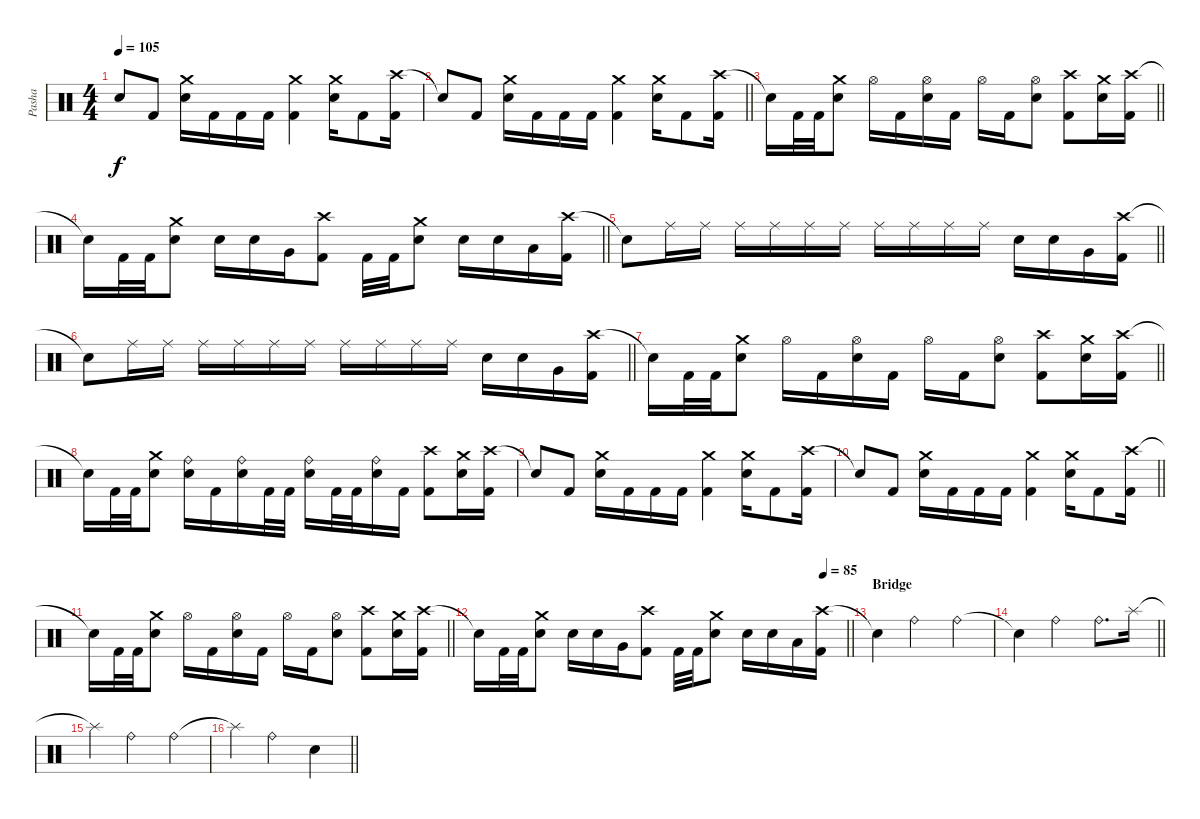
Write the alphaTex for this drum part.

\track ("Pasha" "Pasha") {instrument percussion}
\staff {score}
\articulation defaults
\ts (4 4)
\tempo 105
\clef neutral
\ks c "Snare (hit)"{t}.8{dy f} "Kick (hit) 2".8
("Crash medium (hit)" "Electric Snare (hit)").16 "Kick (hit) 2".16 "Kick (hit) 2".16 "Kick (hit) 2".16 ("Crash medium (hit)" "Kick (hit) 2").4 ("Crash medium (hit)" "Electric Snare (hit)").16 "Kick (hit) 2".8 ("Crash high (hit)" "Kick (hit) 2").16 |
\barLineRight lightlight "Snare (hit)"{t}.8 "Kick (hit) 2".8
("Crash medium (hit)" "Electric Snare (hit)").16 "Kick (hit) 2".16 "Kick (hit) 2".16 "Kick (hit) 2".16 ("Crash medium (hit)" "Kick (hit) 2").4 ("Crash medium (hit)" "Electric Snare (hit)").16 "Kick (hit) 2".8 ("Crash high (hit)" "Kick (hit) 2").16 |
\section ("" "")
\barLineRight lightlight "Snare (hit)"{t}.16 "Kick (hit) 2".32 "Kick (hit) 2".32
("Crash medium (hit)" "Electric Snare (hit)").8 "Hi-Hat (open)".16 "Kick (hit) 2".16 ("Hi-Hat (open)" "Electric Snare (hit)").16 "Kick (hit) 2".16 "Hi-Hat (open)".16 "Kick (hit) 2".16 ("Hi-Hat (open)" "Electric Snare (hit)").8 ("Crash high (hit)" "Kick (hit) 2").8 ("Crash medium (hit)" "Electric Snare (hit)").16 ("Crash high (hit)" "Kick (hit) 2").16 |
\barLineRight lightlight "Snare (hit)"{t}.16 "Kick (hit) 2".32 "Kick (hit) 2".32
("Crash medium (hit)" "Electric Snare (hit)").8 "Electric Snare (hit)".16 "Electric Snare (hit)".16 "Very Low Tom (hit)".16 ("Crash high (hit)" "Kick (hit) 2").8 "Kick (hit) 2".32 "Kick (hit) 2".32 ("Crash medium (hit)" "Electric Snare (hit)").8 "Electric Snare (hit)".16 "Electric Snare (hit)".16 "Low Floor Tom (hit)".16 ("Crash high (hit)" "Kick (hit) 2").16 |
\section ("" "")
\barLineRight lightlight "Snare (hit)"{t}.8 "Ride (middle)".16 "Ride (middle)".16 "Ride (middle)".16 "Ride (middle)".16 "Ride (middle)".16 "Ride (middle)".16 "Ride (middle)".16 "Ride (middle)".16 "Ride (middle)".16 "Ride (middle)".16 "Electric Snare (hit)".16 "Electric Snare (hit)".16 "Very Low Tom (hit)".16
("Crash high (hit)" "Kick (hit) 2").16 |
\barLineRight lightlight "Snare (hit)"{t}.8 "Ride (middle)".16 "Ride (middle)".16 "Ride (middle)".16 "Ride (middle)".16 "Ride (middle)".16 "Ride (middle)".16 "Ride (middle)".16 "Ride (middle)".16 "Ride (middle)".16 "Ride (middle)".16 "Electric Snare (hit)".16 "Electric Snare (hit)".16 "Very Low Tom (hit)".16
("Crash high (hit)" "Kick (hit) 2").16 |
\section ("" "")
\barLineRight lightlight "Snare (hit)"{t}.16 "Kick (hit) 2".32 "Kick (hit) 2".32
("Crash medium (hit)" "Electric Snare (hit)").8 "Hi-Hat (open)".16 "Kick (hit) 2".16 ("Hi-Hat (open)" "Electric Snare (hit)").16 "Kick (hit) 2".16 "Hi-Hat (open)".16 "Kick (hit) 2".16 ("Hi-Hat (open)" "Electric Snare (hit)").8 ("Crash high (hit)" "Kick (hit) 2").8 ("Crash medium (hit)" "Electric Snare (hit)").16 ("Crash high (hit)" "Kick (hit) 2").16 |
"Snare (hit)"{t}.16 "Kick (hit) 2".32 "Kick (hit) 2".32 ("Crash medium (hit)" "Electric Snare (hit)").8 ("Ride (bell)" "Electric Snare (hit)").16 "Kick (hit) 2".16 ("Ride (bell)" "Electric Snare (hit)").16 "Kick (hit) 2".32 "Kick (hit) 2".32 ("Ride (bell)" "Electric Snare (hit)").16 "Kick (hit) 2".32 "Kick (hit) 2".32 ("Ride (bell)" "Electric Snare (hit)").16 "Kick (hit) 2".16 ("Crash high (hit)" "Kick (hit) 2").8 ("Crash medium (hit)" "Electric Snare (hit)").16 ("Crash high (hit)" "Kick (hit) 2").16 |
"Snare (hit)"{t}.8 "Kick (hit) 2".8 ("Crash medium (hit)" "Electric Snare (hit)").16 "Kick (hit) 2".16 "Kick (hit) 2".16 "Kick (hit) 2".16 ("Crash medium (hit)" "Kick (hit) 2").4 ("Crash medium (hit)" "Electric Snare (hit)").16 "Kick (hit) 2".8 ("Crash high (hit)" "Kick (hit) 2").16 |
\barLineRight lightlight "Snare (hit)"{t}.8 "Kick (hit) 2".8
("Crash medium (hit)" "Electric Snare (hit)").16 "Kick (hit) 2".16 "Kick (hit) 2".16 "Kick (hit) 2".16 ("Crash medium (hit)" "Kick (hit) 2").4 ("Crash medium (hit)" "Electric Snare (hit)").16 "Kick (hit) 2".8 ("Crash high (hit)" "Kick (hit) 2").16 |
\section ("" "")
\barLineRight lightlight "Snare (hit)"{t}.16 "Kick (hit) 2".32 "Kick (hit) 2".32
("Crash medium (hit)" "Electric Snare (hit)").8 "Hi-Hat (open)".16 "Kick (hit) 2".16 ("Hi-Hat (open)" "Electric Snare (hit)").16 "Kick (hit) 2".16 "Hi-Hat (open)".16 "Kick (hit) 2".16 ("Hi-Hat (open)" "Electric Snare (hit)").8 ("Crash high (hit)" "Kick (hit) 2").8 ("Crash medium (hit)" "Electric Snare (hit)").16 ("Crash high (hit)" "Kick (hit) 2").16 |
\tempo (85 0.9375)
\barLineRight lightlight "Snare (hit)"{t}.16 "Kick (hit) 2".32 "Kick (hit) 2".32
("Crash medium (hit)" "Electric Snare (hit)").8 "Electric Snare (hit)".16 "Electric Snare (hit)".16 "Very Low Tom (hit)".16 ("Crash high (hit)" "Kick (hit) 2").8 "Kick (hit) 2".32 "Kick (hit) 2".32 ("Crash medium (hit)" "Electric Snare (hit)").8 "Electric Snare (hit)".16 "Electric Snare (hit)".16 "Low Floor Tom (hit)".16 ("Crash high (hit)" "Kick (hit) 2").16 |
\section ("" "Bridge")
"Snare (hit)"{t}.4 "Ride (bell)".2 "Ride (bell)".4 |
\barLineRight lightlight "Snare (hit)"{t}.4 "Ride (bell)".2 "Ride (bell)".8{d} "Splash (hit)".16
|
"Splash (hit)"{t}.4 "Ride (bell)".2 "Ride (bell)".4 |
\barLineRight lightlight "Splash (hit)"{t}.4 "Ride (bell)".2 "Electric Snare (hit)".4
